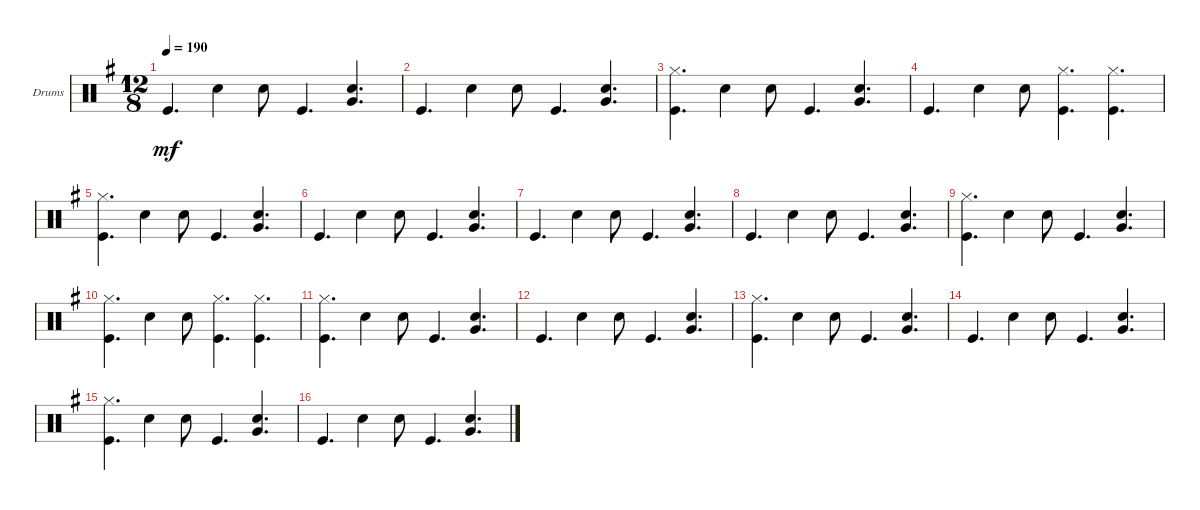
\defaultSystemsLayout 4
\bracketExtendMode groupsimilarinstruments
\firstSystemTrackNameOrientation horizontal
\otherSystemsTrackNameOrientation horizontal
\track ("Drumkit" "Drums") {instrument percussion}
\staff {score}
\articulation defaults
\ts (12 8)
\tempo 190
\clef neutral
\ks g "Kick (hit)".4{d dy mf} "Snare (hit) 2".4 "Snare (hit) 2".8 "Kick (hit)".4{d}
("Very Low Tom (hit)" "Snare (hit) 2").4{d} |
"Kick (hit)".4{d} "Snare (hit) 2".4 "Snare (hit) 2".8 "Kick (hit)".4{d} ("Very Low Tom (hit)" "Snare (hit) 2").4{d} |
("Hi-Hat (closed)" "Kick (hit)").4{d} "Snare (hit) 2".4 "Snare (hit) 2".8 "Kick (hit)".4{d} ("Very Low Tom (hit)" "Snare (hit) 2").4{d} |
"Kick (hit)".4{d} "Snare (hit) 2".4 "Snare (hit) 2".8 ("Hi-Hat (closed)" "Kick (hit)").4{d} ("Kick (hit)" "Hi-Hat (closed)").4{d} |
("Hi-Hat (closed)" "Kick (hit)").4{d} "Snare (hit) 2".4 "Snare (hit) 2".8 "Kick (hit)".4{d} ("Very Low Tom (hit)" "Snare (hit) 2").4{d} |
"Kick (hit)".4{d} "Snare (hit) 2".4 "Snare (hit) 2".8 "Kick (hit)".4{d} ("Very Low Tom (hit)" "Snare (hit) 2").4{d} |
"Kick (hit)".4{d} "Snare (hit) 2".4 "Snare (hit) 2".8 "Kick (hit)".4{d} ("Very Low Tom (hit)" "Snare (hit) 2").4{d} |
"Kick (hit)".4{d} "Snare (hit) 2".4 "Snare (hit) 2".8 "Kick (hit)".4{d} ("Very Low Tom (hit)" "Snare (hit) 2").4{d} |
("Hi-Hat (closed)" "Kick (hit)").4{d} "Snare (hit) 2".4 "Snare (hit) 2".8 "Kick (hit)".4{d} ("Very Low Tom (hit)" "Snare (hit) 2").4{d} |
("Hi-Hat (closed)" "Kick (hit)").4{d} "Snare (hit) 2".4 "Snare (hit) 2".8 ("Hi-Hat (closed)" "Kick (hit)").4{d} ("Kick (hit)" "Hi-Hat (closed)").4{d} |
("Hi-Hat (closed)" "Kick (hit)").4{d} "Snare (hit) 2".4 "Snare (hit) 2".8 "Kick (hit)".4{d} ("Very Low Tom (hit)" "Snare (hit) 2").4{d} |
"Kick (hit)".4{d} "Snare (hit) 2".4 "Snare (hit) 2".8 "Kick (hit)".4{d} ("Very Low Tom (hit)" "Snare (hit) 2").4{d} |
("Hi-Hat (closed)" "Kick (hit)").4{d} "Snare (hit) 2".4 "Snare (hit) 2".8 "Kick (hit)".4{d} ("Very Low Tom (hit)" "Snare (hit) 2").4{d} |
"Kick (hit)".4{d} "Snare (hit) 2".4 "Snare (hit) 2".8 "Kick (hit)".4{d} ("Very Low Tom (hit)" "Snare (hit) 2").4{d} |
("Hi-Hat (closed)" "Kick (hit)").4{d} "Snare (hit) 2".4 "Snare (hit) 2".8 "Kick (hit)".4{d} ("Very Low Tom (hit)" "Snare (hit) 2").4{d} |
"Kick (hit)".4{d} "Snare (hit) 2".4 "Snare (hit) 2".8 "Kick (hit)".4{d} ("Very Low Tom (hit)" "Snare (hit) 2").4{d}
